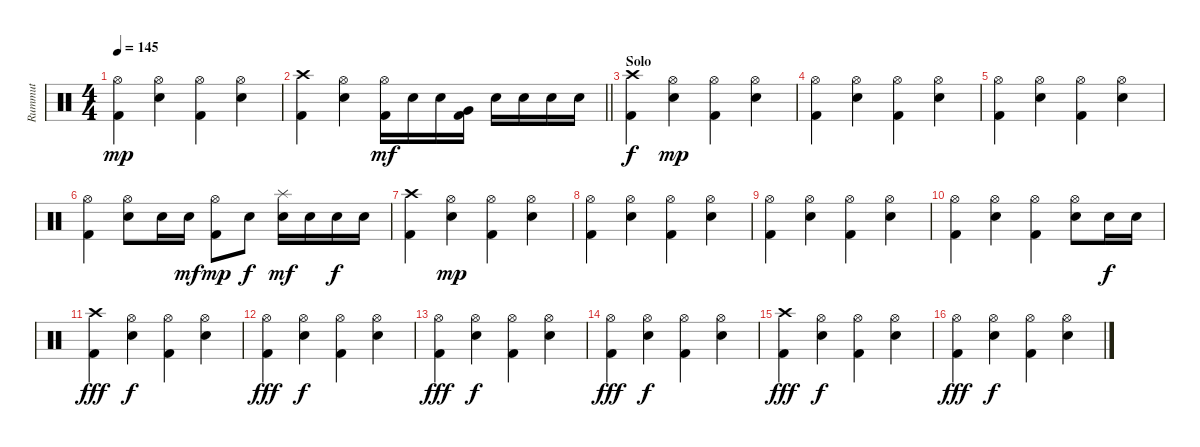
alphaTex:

\track ("Rummut" "Rummut") {instrument percussion}
\staff {score}
\articulation defaults
\ts (4 4)
\tempo 145
\clef neutral
\ks c
("Hi-Hat (open)" "Kick (hit) 2").4{dy mp} ("Hi-Hat (open)" "Snare (hit) 2").4 ("Hi-Hat (open)" "Kick (hit) 2").4 ("Hi-Hat (open)" "Snare (hit) 2").4 |
\barLineRight lightlight
("Crash high (hit)" "Kick (hit) 2").4 ("Hi-Hat (open)" "Snare (hit) 2").4 ("Hi-Hat (open)" "Kick (hit) 2").16{dy mf} "Electric Snare (hit)".16 "Electric Snare (hit)".16 ("Very Low Tom (hit)" "Kick (hit) 2").16 "Electric Snare (hit)".16 "Electric Snare (hit)".16 "Electric Snare (hit)".16 "Electric Snare (hit)".16 |
\section ("" "Solo")
("Crash high (hit)" "Kick (hit) 2").4{dy f} ("Hi-Hat (open)" "Snare (hit) 2").4{dy mp} ("Hi-Hat (open)" "Kick (hit) 2").4 ("Hi-Hat (open)" "Snare (hit) 2").4 |
("Hi-Hat (open)" "Kick (hit) 2").4 ("Hi-Hat (open)" "Snare (hit) 2").4 ("Hi-Hat (open)" "Kick (hit) 2").4 ("Hi-Hat (open)" "Snare (hit) 2").4 |
("Hi-Hat (open)" "Kick (hit) 2").4 ("Hi-Hat (open)" "Snare (hit) 2").4 ("Hi-Hat (open)" "Kick (hit) 2").4 ("Hi-Hat (open)" "Snare (hit) 2").4 |
("Hi-Hat (open)" "Kick (hit) 2").4 ("Hi-Hat (open)" "Snare (hit) 2").8 "Electric Snare (hit)".16 "Electric Snare (hit)".16{dy mf} ("Hi-Hat (open)" "Kick (hit) 2").8{dy mp} "Electric Snare (hit)".8{dy f} ("Splash (hit)" "Electric Snare (hit)").16{dy mf} "Electric Snare (hit)".16 "Electric Snare (hit)".16{dy f} "Electric Snare (hit)".16 |
("Crash high (hit)" "Kick (hit) 2").4 ("Hi-Hat (open)" "Snare (hit) 2").4{dy mp} ("Hi-Hat (open)" "Kick (hit) 2").4 ("Hi-Hat (open)" "Snare (hit) 2").4 |
("Hi-Hat (open)" "Kick (hit) 2").4 ("Hi-Hat (open)" "Snare (hit) 2").4 ("Hi-Hat (open)" "Kick (hit) 2").4 ("Hi-Hat (open)" "Snare (hit) 2").4 |
("Hi-Hat (open)" "Kick (hit) 2").4 ("Hi-Hat (open)" "Snare (hit) 2").4 ("Hi-Hat (open)" "Kick (hit) 2").4 ("Hi-Hat (open)" "Snare (hit) 2").4 |
("Hi-Hat (open)" "Kick (hit) 2").4 ("Hi-Hat (open)" "Snare (hit) 2").4 ("Hi-Hat (open)" "Kick (hit) 2").4 ("Hi-Hat (open)" "Snare (hit) 2").8 "Snare (hit) 2".16{dy f} "Snare (hit) 2".16 |
("Crash high (hit)" "Kick (hit) 2").4{dy fff} ("Hi-Hat (open)" "Snare (hit) 2").4{dy f} ("Hi-Hat (open)" "Kick (hit) 2").4 ("Hi-Hat (open)" "Snare (hit) 2").4 |
("Hi-Hat (open)" "Kick (hit) 2").4{dy fff} ("Hi-Hat (open)" "Snare (hit) 2").4{dy f} ("Hi-Hat (open)" "Kick (hit) 2").4 ("Hi-Hat (open)" "Snare (hit) 2").4 |
("Hi-Hat (open)" "Kick (hit) 2").4{dy fff} ("Hi-Hat (open)" "Snare (hit) 2").4{dy f} ("Hi-Hat (open)" "Kick (hit) 2").4 ("Hi-Hat (open)" "Snare (hit) 2").4 |
("Hi-Hat (open)" "Kick (hit) 2").4{dy fff} ("Hi-Hat (open)" "Snare (hit) 2").4{dy f} ("Hi-Hat (open)" "Kick (hit) 2").4 ("Hi-Hat (open)" "Snare (hit) 2").4 |
("Crash high (hit)" "Kick (hit) 2").4{dy fff} ("Hi-Hat (open)" "Snare (hit) 2").4{dy f} ("Hi-Hat (open)" "Kick (hit) 2").4 ("Hi-Hat (open)" "Snare (hit) 2").4 |
("Hi-Hat (open)" "Kick (hit) 2").4{dy fff} ("Hi-Hat (open)" "Snare (hit) 2").4{dy f} ("Hi-Hat (open)" "Kick (hit) 2").4 ("Hi-Hat (open)" "Snare (hit) 2").4
